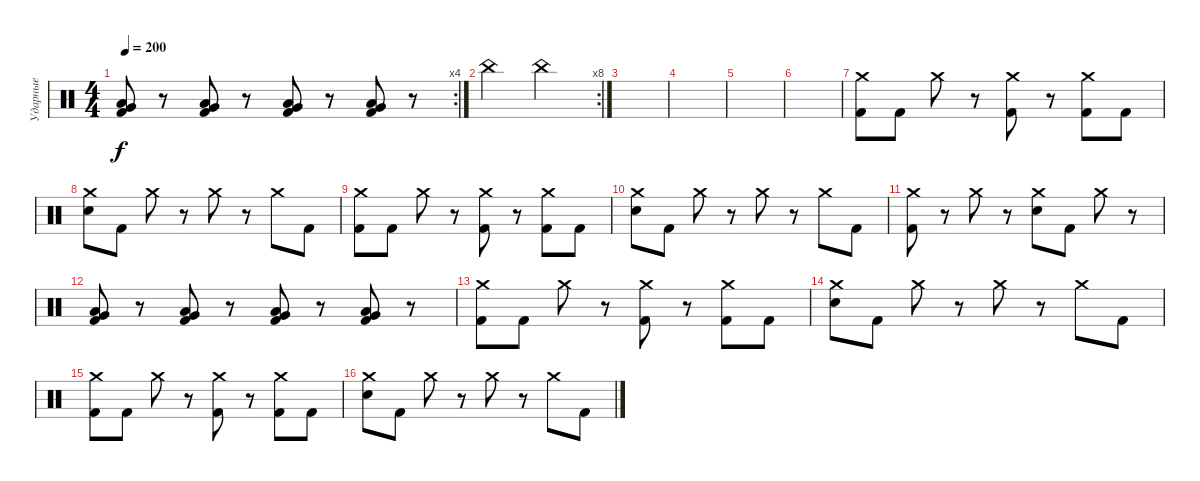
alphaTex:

\track ("Ударные" "Ударные") {instrument percussion}
\staff {score}
\articulation defaults
\rc 4
\ts (4 4)
\tempo 200
\clef neutral
\ks c
("Low Floor Tom (hit)" "Very Low Tom (hit)" "Kick (hit) 2").8{dy f} r.8 ("Low Floor Tom (hit)" "Very Low Tom (hit)" "Kick (hit) 2").8 r.8 ("Low Floor Tom (hit)" "Very Low Tom (hit)" "Kick (hit) 2").8 r.8 ("Low Floor Tom (hit)" "Very Low Tom (hit)" "Kick (hit) 2").8 r.8 |
\rc 8 "China (hit)".2 "China (hit)".2
|
|
|
|
|
("Crash medium (hit)" "Kick (hit) 2").8 "Kick (hit) 2".8 "Crash medium (hit)".8 r.8 ("Crash medium (hit)" "Kick (hit) 2").8 r.8 ("Crash medium (hit)" "Kick (hit) 2").8 "Kick (hit) 2".8 |
("Crash medium (hit)" "Electric Snare (hit)").8 "Kick (hit) 2".8 "Crash medium (hit)".8 r.8 "Crash medium (hit)".8 r.8 "Crash medium (hit)".8 "Kick (hit) 2".8 |
("Crash medium (hit)" "Kick (hit) 2").8 "Kick (hit) 2".8 "Crash medium (hit)".8 r.8 ("Crash medium (hit)" "Kick (hit) 2").8 r.8 ("Crash medium (hit)" "Kick (hit) 2").8 "Kick (hit) 2".8 |
("Crash medium (hit)" "Electric Snare (hit)").8 "Kick (hit) 2".8 "Crash medium (hit)".8 r.8 "Crash medium (hit)".8 r.8 "Crash medium (hit)".8 "Kick (hit) 2".8 |
("Crash medium (hit)" "Kick (hit) 2").8 r.8 "Crash medium (hit)".8 r.8 ("Crash medium (hit)" "Electric Snare (hit)").8 "Kick (hit) 2".8 "Crash medium (hit)".8 r.8 |
("Low Floor Tom (hit)" "Very Low Tom (hit)" "Kick (hit) 2").8 r.8 ("Low Floor Tom (hit)" "Very Low Tom (hit)" "Kick (hit) 2").8 r.8 ("Low Floor Tom (hit)" "Very Low Tom (hit)" "Kick (hit) 2").8 r.8 ("Low Floor Tom (hit)" "Very Low Tom (hit)" "Kick (hit) 2").8 r.8 |
("Crash medium (hit)" "Kick (hit) 2").8 "Kick (hit) 2".8 "Crash medium (hit)".8 r.8 ("Crash medium (hit)" "Kick (hit) 2").8 r.8 ("Crash medium (hit)" "Kick (hit) 2").8 "Kick (hit) 2".8 |
("Crash medium (hit)" "Electric Snare (hit)").8 "Kick (hit) 2".8 "Crash medium (hit)".8 r.8 "Crash medium (hit)".8 r.8 "Crash medium (hit)".8 "Kick (hit) 2".8 |
("Crash medium (hit)" "Kick (hit) 2").8 "Kick (hit) 2".8 "Crash medium (hit)".8 r.8 ("Crash medium (hit)" "Kick (hit) 2").8 r.8 ("Crash medium (hit)" "Kick (hit) 2").8 "Kick (hit) 2".8 |
("Crash medium (hit)" "Electric Snare (hit)").8 "Kick (hit) 2".8 "Crash medium (hit)".8 r.8 "Crash medium (hit)".8 r.8 "Crash medium (hit)".8 "Kick (hit) 2".8
